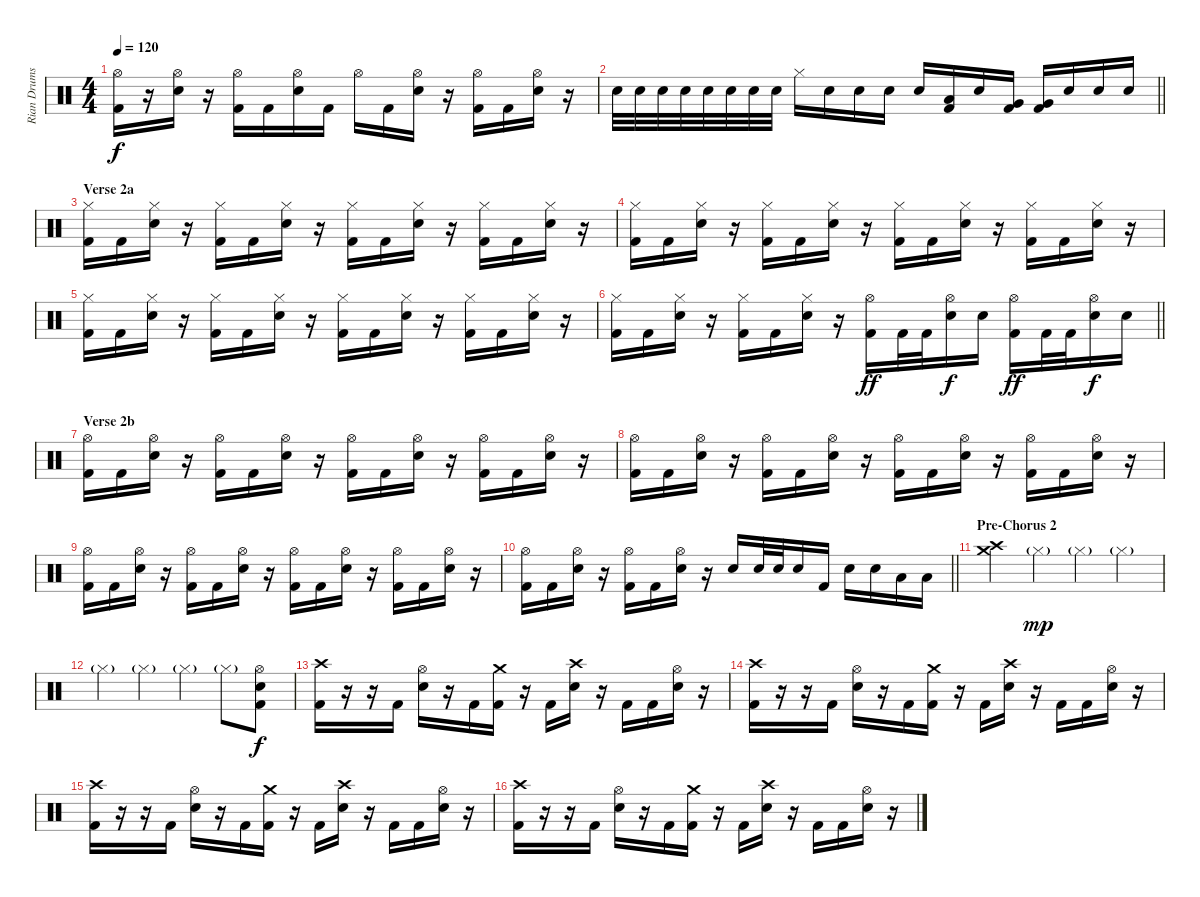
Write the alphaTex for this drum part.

\track ("Rian Drums" "Rian Drums") {instrument percussion}
\staff {score}
\articulation defaults
\ts (4 4)
\tempo 120
\clef neutral
\ks c
("Hi-Hat (open)" "Kick (hit) 2").16{dy f} r.16 ("Hi-Hat (open)" "Electric Snare (hit)").16 r.16 ("Hi-Hat (open)" "Kick (hit) 2").16 "Kick (hit) 2".16 ("Hi-Hat (open)" "Electric Snare (hit)").16 "Kick (hit) 2".16 "Hi-Hat (open)".16 "Kick (hit) 2".16 ("Hi-Hat (open)" "Electric Snare (hit)").16 r.16 ("Hi-Hat (open)" "Kick (hit) 2").16 "Kick (hit) 2".16 ("Hi-Hat (open)" "Electric Snare (hit)").16 r.16 |
\barLineRight lightlight "Electric Snare (hit)".32 "Electric Snare (hit)".32 "Electric Snare (hit)".32 "Electric Snare (hit)".32 "Electric Snare (hit)".32 "Electric Snare (hit)".32 "Electric Snare (hit)".32 "Electric Snare (hit)".32 "Hi-Hat (closed)".16 "Electric Snare (hit)".16 "Electric Snare (hit)".16 "Electric Snare (hit)".16 "Electric Snare (hit)".16
("Low Tom (hit)" "Kick (hit) 2").16 "Electric Snare (hit)".16 ("Very Low Tom (hit)" "Kick (hit) 2").16 ("Very Low Tom (hit)" "Kick (hit) 2").16 "Electric Snare (hit)".16 "Electric Snare (hit)".16 "Electric Snare (hit)".16 |
\section ("" "Verse 2a")
("Hi-Hat (closed)" "Kick (hit) 2").16 "Kick (hit) 2".16 ("Hi-Hat (closed)" "Electric Snare (hit)").16 r.16 ("Hi-Hat (closed)" "Kick (hit) 2").16 "Kick (hit) 2".16 ("Hi-Hat (closed)" "Electric Snare (hit)").16 r.16 ("Hi-Hat (closed)" "Kick (hit) 2").16 "Kick (hit) 2".16 ("Hi-Hat (closed)" "Electric Snare (hit)").16 r.16 ("Hi-Hat (closed)" "Kick (hit) 2").16 "Kick (hit) 2".16 ("Hi-Hat (closed)" "Electric Snare (hit)").16 r.16 |
("Hi-Hat (closed)" "Kick (hit) 2").16 "Kick (hit) 2".16 ("Hi-Hat (closed)" "Electric Snare (hit)").16 r.16 ("Hi-Hat (closed)" "Kick (hit) 2").16 "Kick (hit) 2".16 ("Hi-Hat (closed)" "Electric Snare (hit)").16 r.16 ("Hi-Hat (closed)" "Kick (hit) 2").16 "Kick (hit) 2".16 ("Hi-Hat (closed)" "Electric Snare (hit)").16 r.16 ("Hi-Hat (closed)" "Kick (hit) 2").16 "Kick (hit) 2".16 ("Hi-Hat (closed)" "Electric Snare (hit)").16 r.16 |
("Hi-Hat (closed)" "Kick (hit) 2").16 "Kick (hit) 2".16 ("Hi-Hat (closed)" "Electric Snare (hit)").16 r.16 ("Hi-Hat (closed)" "Kick (hit) 2").16 "Kick (hit) 2".16 ("Hi-Hat (closed)" "Electric Snare (hit)").16 r.16 ("Hi-Hat (closed)" "Kick (hit) 2").16 "Kick (hit) 2".16 ("Hi-Hat (closed)" "Electric Snare (hit)").16 r.16 ("Hi-Hat (closed)" "Kick (hit) 2").16 "Kick (hit) 2".16 ("Hi-Hat (closed)" "Electric Snare (hit)").16 r.16 |
\barLineRight lightlight
("Hi-Hat (closed)" "Kick (hit) 2").16 "Kick (hit) 2".16 ("Hi-Hat (closed)" "Electric Snare (hit)").16 r.16 ("Hi-Hat (closed)" "Kick (hit) 2").16 "Kick (hit) 2".16 ("Hi-Hat (closed)" "Electric Snare (hit)").16 r.16 ("Hi-Hat (open)" "Kick (hit) 2").16{dy ff} "Kick (hit) 2".32 "Kick (hit) 2".32 ("Hi-Hat (open)" "Electric Snare (hit)").16{dy f} "Electric Snare (hit)".16 ("Hi-Hat (open)" "Kick (hit) 2").16{dy ff} "Kick (hit) 2".32 "Kick (hit) 2".32 ("Hi-Hat (open)" "Electric Snare (hit)").16{dy f} "Electric Snare (hit)".16 |
\section ("" "Verse 2b")
("Hi-Hat (open)" "Kick (hit) 2").16 "Kick (hit) 2".16 ("Hi-Hat (open)" "Electric Snare (hit)").16 r.16 ("Hi-Hat (open)" "Kick (hit) 2").16 "Kick (hit) 2".16 ("Hi-Hat (open)" "Electric Snare (hit)").16 r.16 ("Hi-Hat (open)" "Kick (hit) 2").16 "Kick (hit) 2".16 ("Hi-Hat (open)" "Electric Snare (hit)").16 r.16 ("Hi-Hat (open)" "Kick (hit) 2").16 "Kick (hit) 2".16 ("Hi-Hat (open)" "Electric Snare (hit)").16 r.16 |
("Hi-Hat (open)" "Kick (hit) 2").16 "Kick (hit) 2".16 ("Hi-Hat (open)" "Electric Snare (hit)").16 r.16 ("Hi-Hat (open)" "Kick (hit) 2").16 "Kick (hit) 2".16 ("Hi-Hat (open)" "Electric Snare (hit)").16 r.16 ("Hi-Hat (open)" "Kick (hit) 2").16 "Kick (hit) 2".16 ("Hi-Hat (open)" "Electric Snare (hit)").16 r.16 ("Hi-Hat (open)" "Kick (hit) 2").16 "Kick (hit) 2".16 ("Hi-Hat (open)" "Electric Snare (hit)").16 r.16 |
("Hi-Hat (open)" "Kick (hit) 2").16 "Kick (hit) 2".16 ("Hi-Hat (open)" "Electric Snare (hit)").16 r.16 ("Hi-Hat (open)" "Kick (hit) 2").16 "Kick (hit) 2".16 ("Hi-Hat (open)" "Electric Snare (hit)").16 r.16 ("Hi-Hat (open)" "Kick (hit) 2").16 "Kick (hit) 2".16 ("Hi-Hat (open)" "Electric Snare (hit)").16 r.16 ("Hi-Hat (open)" "Kick (hit) 2").16 "Kick (hit) 2".16 ("Hi-Hat (open)" "Electric Snare (hit)").16 r.16 |
\barLineRight lightlight
("Hi-Hat (open)" "Kick (hit) 2").16 "Kick (hit) 2".16 ("Hi-Hat (open)" "Electric Snare (hit)").16 r.16 ("Hi-Hat (open)" "Kick (hit) 2").16 "Kick (hit) 2".16 ("Hi-Hat (open)" "Electric Snare (hit)").16 r.16 "Electric Snare (hit)".16 "Electric Snare (hit)".32 "Electric Snare (hit)".32 "Electric Snare (hit)".16 "Kick (hit) 2".16 "Electric Snare (hit)".16 "Electric Snare (hit)".16 "Low Tom (hit)".16 "Low Tom (hit)".16 |
\section ("" "Pre-Chorus 2")
("Crash high (hit)" "Crash medium (hit)").4 "Hi-Hat (closed)"{g}.4{dy mp} "Hi-Hat (closed)"{g}.4 "Hi-Hat (closed)"{g}.4 |
"Hi-Hat (closed)"{g}.4 "Hi-Hat (closed)"{g}.4 "Hi-Hat (closed)"{g}.4 "Hi-Hat (closed)"{g}.8 ("Hi-Hat (open)" "Electric Snare (hit)" "Kick (hit) 2").8{dy f} |
("Crash high (hit)" "Kick (hit) 2").16 r.16 r.16 "Kick (hit) 2".16 ("Hi-Hat (open)" "Electric Snare (hit)").16 r.16 "Kick (hit) 2".16 ("Crash medium (hit)" "Kick (hit) 2").16 r.16 "Kick (hit) 2".16 ("Crash high (hit)" "Electric Snare (hit)").16 r.16 "Kick (hit) 2".16 "Kick (hit) 2".16 ("Hi-Hat (open)" "Electric Snare (hit)").16 r.16 |
("Crash high (hit)" "Kick (hit) 2").16 r.16 r.16 "Kick (hit) 2".16 ("Hi-Hat (open)" "Electric Snare (hit)").16 r.16 "Kick (hit) 2".16 ("Crash medium (hit)" "Kick (hit) 2").16 r.16 "Kick (hit) 2".16 ("Crash high (hit)" "Electric Snare (hit)").16 r.16 "Kick (hit) 2".16 "Kick (hit) 2".16 ("Hi-Hat (open)" "Electric Snare (hit)").16 r.16 |
("Crash high (hit)" "Kick (hit) 2").16 r.16 r.16 "Kick (hit) 2".16 ("Hi-Hat (open)" "Electric Snare (hit)").16 r.16 "Kick (hit) 2".16 ("Crash medium (hit)" "Kick (hit) 2").16 r.16 "Kick (hit) 2".16 ("Crash high (hit)" "Electric Snare (hit)").16 r.16 "Kick (hit) 2".16 "Kick (hit) 2".16 ("Hi-Hat (open)" "Electric Snare (hit)").16 r.16 |
("Crash high (hit)" "Kick (hit) 2").16 r.16 r.16 "Kick (hit) 2".16 ("Hi-Hat (open)" "Electric Snare (hit)").16 r.16 "Kick (hit) 2".16 ("Crash medium (hit)" "Kick (hit) 2").16 r.16 "Kick (hit) 2".16 ("Crash high (hit)" "Electric Snare (hit)").16 r.16 "Kick (hit) 2".16 "Kick (hit) 2".16 ("Hi-Hat (open)" "Electric Snare (hit)").16 r.16
